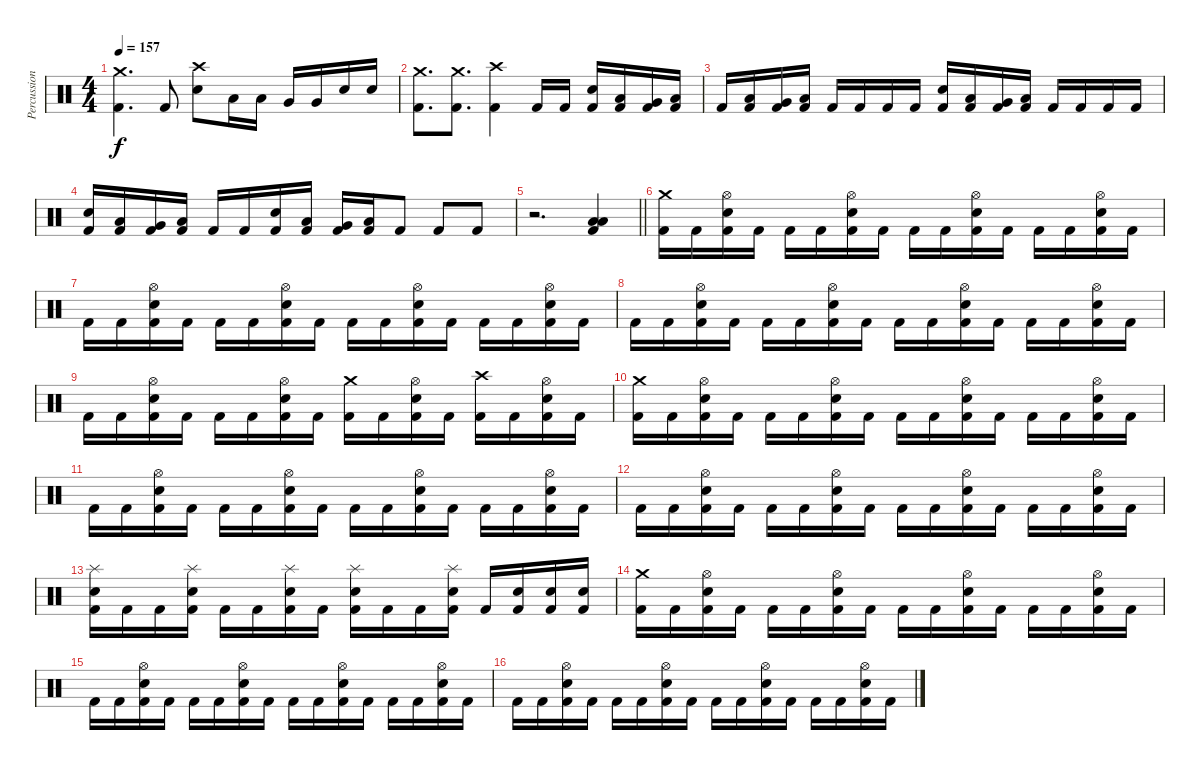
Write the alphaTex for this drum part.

\track ("Percussion" "Percussion") {instrument percussion}
\staff {score}
\articulation defaults
\ts (4 4)
\tempo 157
\clef neutral
\ks c
("Crash medium (hit)" "Kick (hit) 2").4{d dy f} "Kick (hit) 2".8 ("Crash high (hit)" "Electric Snare (hit)").8 "Low Tom (hit)".16 "Low Tom (hit)".16 "Very Low Tom (hit)".16 "Very Low Tom (hit)".16 "Electric Snare (hit)".16 "Electric Snare (hit)".16 |
("Crash medium (hit)" "Kick (hit) 2").8{d} ("Crash medium (hit)" "Kick (hit) 2").8{d} ("Crash high (hit)" "Kick (hit) 2").4 "Kick (hit) 2".16 "Kick (hit) 2".16 ("Electric Snare (hit)" "Kick (hit) 2").16 ("Low Tom (hit)" "Kick (hit) 2").16 ("Very Low Tom (hit)" "Kick (hit) 2").16 ("Low Floor Tom (hit)" "Kick (hit) 2").16 |
"Kick (hit) 2".16 ("Low Tom (hit)" "Kick (hit) 2").16 ("Very Low Tom (hit)" "Kick (hit) 2").16 ("Low Floor Tom (hit)" "Kick (hit) 2").16 "Kick (hit) 2".16 "Kick (hit) 2".16 "Kick (hit) 2".16 "Kick (hit) 2".16 ("Electric Snare (hit)" "Kick (hit) 2").16 ("Low Tom (hit)" "Kick (hit) 2").16 ("Very Low Tom (hit)" "Kick (hit) 2").16 ("Low Floor Tom (hit)" "Kick (hit) 2").16 "Kick (hit) 2".16 "Kick (hit) 2".16 "Kick (hit) 2".16 "Kick (hit) 2".16 |
("Electric Snare (hit)" "Kick (hit) 2").16 ("Low Tom (hit)" "Kick (hit) 2").16 ("Very Low Tom (hit)" "Kick (hit) 2").16 ("Low Floor Tom (hit)" "Kick (hit) 2").16 "Kick (hit) 2".16 "Kick (hit) 2".16 ("Electric Snare (hit)" "Kick (hit) 2").16 ("Low Tom (hit)" "Kick (hit) 2").16 ("Very Low Tom (hit)" "Kick (hit) 2").16 ("Low Floor Tom (hit)" "Kick (hit) 2").16 "Kick (hit) 2".8 "Kick (hit) 2".8 "Kick (hit) 2".8 |
\barLineRight lightlight
r.2{d} ("Low Floor Tom (hit)" "Low Floor Tom (hit)" "Kick (hit) 2").4 |
("Crash medium (hit)" "Kick (hit) 2").16 "Kick (hit) 2".16 ("Hi-Hat (open)" "Electric Snare (hit)" "Kick (hit) 2").16 "Kick (hit) 2".16 "Kick (hit) 2".16 "Kick (hit) 2".16 ("Hi-Hat (open)" "Electric Snare (hit)" "Kick (hit) 2").16 "Kick (hit) 2".16 "Kick (hit) 2".16 "Kick (hit) 2".16 ("Hi-Hat (open)" "Electric Snare (hit)" "Kick (hit) 2").16 "Kick (hit) 2".16 "Kick (hit) 2".16 "Kick (hit) 2".16 ("Hi-Hat (open)" "Electric Snare (hit)" "Kick (hit) 2").16 "Kick (hit) 2".16 |
"Kick (hit) 2".16 "Kick (hit) 2".16 ("Hi-Hat (open)" "Electric Snare (hit)" "Kick (hit) 2").16 "Kick (hit) 2".16 "Kick (hit) 2".16 "Kick (hit) 2".16 ("Hi-Hat (open)" "Electric Snare (hit)" "Kick (hit) 2").16 "Kick (hit) 2".16 "Kick (hit) 2".16 "Kick (hit) 2".16 ("Hi-Hat (open)" "Electric Snare (hit)" "Kick (hit) 2").16 "Kick (hit) 2".16 "Kick (hit) 2".16 "Kick (hit) 2".16 ("Hi-Hat (open)" "Electric Snare (hit)" "Kick (hit) 2").16 "Kick (hit) 2".16 |
"Kick (hit) 2".16 "Kick (hit) 2".16 ("Hi-Hat (open)" "Electric Snare (hit)" "Kick (hit) 2").16 "Kick (hit) 2".16 "Kick (hit) 2".16 "Kick (hit) 2".16 ("Hi-Hat (open)" "Electric Snare (hit)" "Kick (hit) 2").16 "Kick (hit) 2".16 "Kick (hit) 2".16 "Kick (hit) 2".16 ("Hi-Hat (open)" "Electric Snare (hit)" "Kick (hit) 2").16 "Kick (hit) 2".16 "Kick (hit) 2".16 "Kick (hit) 2".16 ("Hi-Hat (open)" "Electric Snare (hit)" "Kick (hit) 2").16 "Kick (hit) 2".16 |
"Kick (hit) 2".16 "Kick (hit) 2".16 ("Hi-Hat (open)" "Electric Snare (hit)" "Kick (hit) 2").16 "Kick (hit) 2".16 "Kick (hit) 2".16 "Kick (hit) 2".16 ("Hi-Hat (open)" "Electric Snare (hit)" "Kick (hit) 2").16 "Kick (hit) 2".16 ("Crash medium (hit)" "Kick (hit) 2").16 "Kick (hit) 2".16 ("Hi-Hat (open)" "Electric Snare (hit)" "Kick (hit) 2").16 "Kick (hit) 2".16 ("Crash high (hit)" "Kick (hit) 2").16 "Kick (hit) 2".16 ("Hi-Hat (open)" "Electric Snare (hit)" "Kick (hit) 2").16 "Kick (hit) 2".16 |
("Crash medium (hit)" "Kick (hit) 2").16 "Kick (hit) 2".16 ("Hi-Hat (open)" "Electric Snare (hit)" "Kick (hit) 2").16 "Kick (hit) 2".16 "Kick (hit) 2".16 "Kick (hit) 2".16 ("Hi-Hat (open)" "Electric Snare (hit)" "Kick (hit) 2").16 "Kick (hit) 2".16 "Kick (hit) 2".16 "Kick (hit) 2".16 ("Hi-Hat (open)" "Electric Snare (hit)" "Kick (hit) 2").16 "Kick (hit) 2".16 "Kick (hit) 2".16 "Kick (hit) 2".16 ("Hi-Hat (open)" "Electric Snare (hit)" "Kick (hit) 2").16 "Kick (hit) 2".16 |
"Kick (hit) 2".16 "Kick (hit) 2".16 ("Hi-Hat (open)" "Electric Snare (hit)" "Kick (hit) 2").16 "Kick (hit) 2".16 "Kick (hit) 2".16 "Kick (hit) 2".16 ("Hi-Hat (open)" "Electric Snare (hit)" "Kick (hit) 2").16 "Kick (hit) 2".16 "Kick (hit) 2".16 "Kick (hit) 2".16 ("Hi-Hat (open)" "Electric Snare (hit)" "Kick (hit) 2").16 "Kick (hit) 2".16 "Kick (hit) 2".16 "Kick (hit) 2".16 ("Hi-Hat (open)" "Electric Snare (hit)" "Kick (hit) 2").16 "Kick (hit) 2".16 |
"Kick (hit) 2".16 "Kick (hit) 2".16 ("Hi-Hat (open)" "Electric Snare (hit)" "Kick (hit) 2").16 "Kick (hit) 2".16 "Kick (hit) 2".16 "Kick (hit) 2".16 ("Hi-Hat (open)" "Electric Snare (hit)" "Kick (hit) 2").16 "Kick (hit) 2".16 "Kick (hit) 2".16 "Kick (hit) 2".16 ("Hi-Hat (open)" "Electric Snare (hit)" "Kick (hit) 2").16 "Kick (hit) 2".16 "Kick (hit) 2".16 "Kick (hit) 2".16 ("Hi-Hat (open)" "Electric Snare (hit)" "Kick (hit) 2").16 "Kick (hit) 2".16 |
("Splash (hit)" "Electric Snare (hit)" "Kick (hit) 2").16 "Kick (hit) 2".16 "Kick (hit) 2".16 ("Splash (hit)" "Electric Snare (hit)" "Kick (hit) 2").16 "Kick (hit) 2".16 "Kick (hit) 2".16 ("Splash (hit)" "Electric Snare (hit)" "Kick (hit) 2").16 "Kick (hit) 2".16 ("Splash (hit)" "Electric Snare (hit)" "Kick (hit) 2").16 "Kick (hit) 2".16 "Kick (hit) 2".16 ("Splash (hit)" "Electric Snare (hit)" "Kick (hit) 2").16 "Kick (hit) 2".16 ("Electric Snare (hit)" "Kick (hit) 2").16 ("Electric Snare (hit)" "Kick (hit) 2").16 ("Electric Snare (hit)" "Kick (hit) 2").16 |
("Crash medium (hit)" "Kick (hit) 2").16 "Kick (hit) 2".16 ("Hi-Hat (open)" "Electric Snare (hit)" "Kick (hit) 2").16 "Kick (hit) 2".16 "Kick (hit) 2".16 "Kick (hit) 2".16 ("Hi-Hat (open)" "Electric Snare (hit)" "Kick (hit) 2").16 "Kick (hit) 2".16 "Kick (hit) 2".16 "Kick (hit) 2".16 ("Hi-Hat (open)" "Electric Snare (hit)" "Kick (hit) 2").16 "Kick (hit) 2".16 "Kick (hit) 2".16 "Kick (hit) 2".16 ("Hi-Hat (open)" "Electric Snare (hit)" "Kick (hit) 2").16 "Kick (hit) 2".16 |
"Kick (hit) 2".16 "Kick (hit) 2".16 ("Hi-Hat (open)" "Electric Snare (hit)" "Kick (hit) 2").16 "Kick (hit) 2".16 "Kick (hit) 2".16 "Kick (hit) 2".16 ("Hi-Hat (open)" "Electric Snare (hit)" "Kick (hit) 2").16 "Kick (hit) 2".16 "Kick (hit) 2".16 "Kick (hit) 2".16 ("Hi-Hat (open)" "Electric Snare (hit)" "Kick (hit) 2").16 "Kick (hit) 2".16 "Kick (hit) 2".16 "Kick (hit) 2".16 ("Hi-Hat (open)" "Electric Snare (hit)" "Kick (hit) 2").16 "Kick (hit) 2".16 |
"Kick (hit) 2".16 "Kick (hit) 2".16 ("Hi-Hat (open)" "Electric Snare (hit)" "Kick (hit) 2").16 "Kick (hit) 2".16 "Kick (hit) 2".16 "Kick (hit) 2".16 ("Hi-Hat (open)" "Electric Snare (hit)" "Kick (hit) 2").16 "Kick (hit) 2".16 "Kick (hit) 2".16 "Kick (hit) 2".16 ("Hi-Hat (open)" "Electric Snare (hit)" "Kick (hit) 2").16 "Kick (hit) 2".16 "Kick (hit) 2".16 "Kick (hit) 2".16 ("Hi-Hat (open)" "Electric Snare (hit)" "Kick (hit) 2").16 "Kick (hit) 2".16
